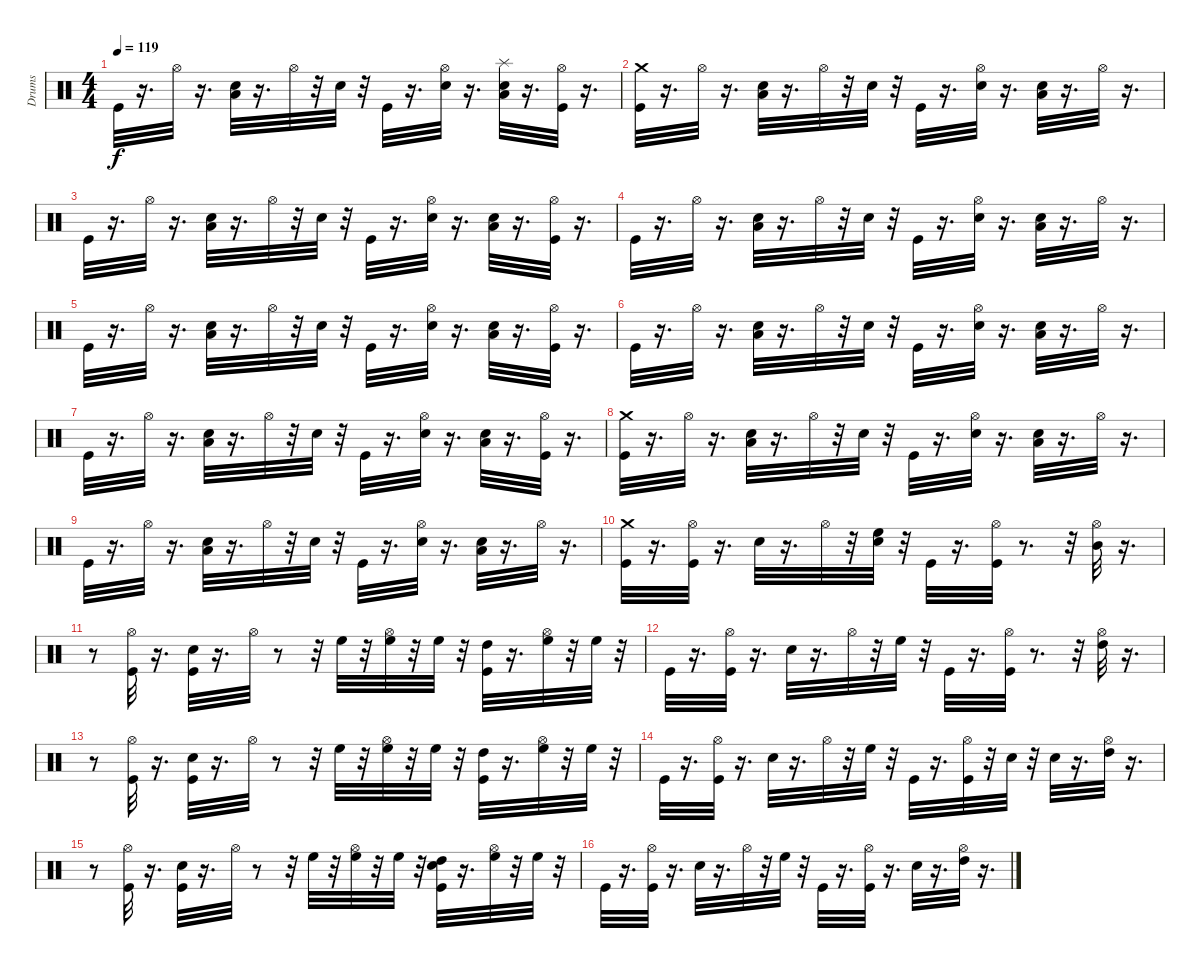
\track ("Drums" "Drums") {instrument percussion}
\staff {score}
\articulation defaults
\ts (4 4)
\tempo 119
\clef neutral
\ks c "Kick (hit)".32{dy f}
r.16{d} "Hi-Hat (open)".32 r.16{d} ("Low Floor Tom (hit)" "Hand Clap (hit)").32 r.16{d} "Hi-Hat (open)".32 r.32 "Hand Clap (hit)".32 r.32 "Kick (hit)".32 r.16{d} ("Hi-Hat (open)" "Hand Clap (hit)").32 r.16{d} ("Splash (hit)" "Low Floor Tom (hit)" "Hand Clap (hit)").32 r.16{d} ("Kick (hit)" "Hi-Hat (open)").32 r.16{d} |
("Crash medium (hit)" "Kick (hit)").32 r.16{d} "Hi-Hat (open)".32 r.16{d} ("Low Floor Tom (hit)" "Hand Clap (hit)").32 r.16{d} "Hi-Hat (open)".32 r.32 "Hand Clap (hit)".32 r.32 "Kick (hit)".32 r.16{d} ("Hi-Hat (open)" "Hand Clap (hit)").32 r.16{d} ("Low Floor Tom (hit)" "Hand Clap (hit)").32 r.16{d} "Hi-Hat (open)".32 r.16{d} |
"Kick (hit)".32 r.16{d} "Hi-Hat (open)".32 r.16{d} ("Low Floor Tom (hit)" "Hand Clap (hit)").32 r.16{d} "Hi-Hat (open)".32 r.32 "Hand Clap (hit)".32 r.32 "Kick (hit)".32 r.16{d} ("Hi-Hat (open)" "Hand Clap (hit)").32 r.16{d} ("Low Floor Tom (hit)" "Hand Clap (hit)").32 r.16{d} ("Kick (hit)" "Hi-Hat (open)").32 r.16{d} |
"Kick (hit)".32 r.16{d} "Hi-Hat (open)".32 r.16{d} ("Low Floor Tom (hit)" "Hand Clap (hit)").32 r.16{d} "Hi-Hat (open)".32 r.32 "Hand Clap (hit)".32 r.32 "Kick (hit)".32 r.16{d} ("Hi-Hat (open)" "Hand Clap (hit)").32 r.16{d} ("Low Floor Tom (hit)" "Hand Clap (hit)").32 r.16{d} "Hi-Hat (open)".32 r.16{d} |
"Kick (hit)".32 r.16{d} "Hi-Hat (open)".32 r.16{d} ("Low Floor Tom (hit)" "Hand Clap (hit)").32 r.16{d} "Hi-Hat (open)".32 r.32 "Hand Clap (hit)".32 r.32 "Kick (hit)".32 r.16{d} ("Hi-Hat (open)" "Hand Clap (hit)").32 r.16{d} ("Low Floor Tom (hit)" "Hand Clap (hit)").32 r.16{d} ("Kick (hit)" "Hi-Hat (open)").32 r.16{d} |
"Kick (hit)".32 r.16{d} "Hi-Hat (open)".32 r.16{d} ("Low Floor Tom (hit)" "Hand Clap (hit)").32 r.16{d} "Hi-Hat (open)".32 r.32 "Hand Clap (hit)".32 r.32 "Kick (hit)".32 r.16{d} ("Hi-Hat (open)" "Hand Clap (hit)").32 r.16{d} ("Low Floor Tom (hit)" "Hand Clap (hit)").32 r.16{d} "Hi-Hat (open)".32 r.16{d} |
"Kick (hit)".32 r.16{d} "Hi-Hat (open)".32 r.16{d} ("Low Floor Tom (hit)" "Hand Clap (hit)").32 r.16{d} "Hi-Hat (open)".32 r.32 "Hand Clap (hit)".32 r.32 "Kick (hit)".32 r.16{d} ("Hi-Hat (open)" "Hand Clap (hit)").32 r.16{d} ("Low Floor Tom (hit)" "Hand Clap (hit)").32 r.16{d} ("Kick (hit)" "Hi-Hat (open)").32 r.16{d} |
("Crash medium (hit)" "Kick (hit)").32 r.16{d} "Hi-Hat (open)".32 r.16{d} ("Low Floor Tom (hit)" "Hand Clap (hit)").32 r.16{d} "Hi-Hat (open)".32 r.32 "Hand Clap (hit)".32 r.32 "Kick (hit)".32 r.16{d} ("Hi-Hat (open)" "Hand Clap (hit)").32 r.16{d} ("Low Floor Tom (hit)" "Hand Clap (hit)").32 r.16{d} "Hi-Hat (open)".32 r.16{d} |
"Kick (hit)".32 r.16{d} "Hi-Hat (open)".32 r.16{d} ("Low Floor Tom (hit)" "Hand Clap (hit)").32 r.16{d} "Hi-Hat (open)".32 r.32 "Hand Clap (hit)".32 r.32 "Kick (hit)".32 r.16{d} ("Hi-Hat (open)" "Hand Clap (hit)").32 r.16{d} ("Low Floor Tom (hit)" "Hand Clap (hit)").32 r.16{d} "Hi-Hat (open)".32 r.16{d} |
("Crash medium (hit)" "Kick (hit)").32 r.16{d} ("Kick (hit)" "Hi-Hat (open)").32 r.16{d} "Hand Clap (hit)".32 r.16{d} "Hi-Hat (open)".32 r.32 ("High Floor Tom (hit)" "Electric Snare (hit)").32 r.32 "Kick (hit)".32 r.16{d} ("Kick (hit)" "Hi-Hat (open)").32 r.8{d} r.32 ("Mid Tom (hit)" "Hi-Hat (open)").32 r.16{d} |
r.8 ("Kick (hit)" "Hi-Hat (open)").32 r.16{d} ("Hand Clap (hit)" "Kick (hit)").32 r.16{d} "Hi-Hat (open)".32 r.8 r.32 "High Floor Tom (hit)".32 r.32 ("High Floor Tom (hit)" "Hi-Hat (open)").32 r.32 "High Floor Tom (hit)".32 r.32 ("High Tom (hit)" "Kick (hit)").32 r.16{d} ("High Floor Tom (hit)" "Hi-Hat (open)").32 r.32 "High Floor Tom (hit)".32 r.32 |
"Kick (hit)".32 r.16{d} ("Kick (hit)" "Hi-Hat (open)").32 r.16{d} "Hand Clap (hit)".32 r.16{d} "Hi-Hat (open)".32 r.32 "High Floor Tom (hit)".32 r.32 "Kick (hit)".32 r.16{d} ("Kick (hit)" "Hi-Hat (open)").32 r.8{d} r.32 ("High Tom (hit)" "Hi-Hat (open)").32 r.16{d} |
r.8 ("Kick (hit)" "Hi-Hat (open)").32 r.16{d} ("Hand Clap (hit)" "Kick (hit)").32 r.16{d} "Hi-Hat (open)".32 r.8 r.32 "High Floor Tom (hit)".32 r.32 ("High Floor Tom (hit)" "Hi-Hat (open)").32 r.32 "High Floor Tom (hit)".32 r.32 ("High Tom (hit)" "Kick (hit)").32 r.16{d} ("High Floor Tom (hit)" "Hi-Hat (open)").32 r.32 "High Floor Tom (hit)".32 r.32 |
"Kick (hit)".32 r.16{d} ("Kick (hit)" "Hi-Hat (open)").32 r.16{d} "Hand Clap (hit)".32 r.16{d} "Hi-Hat (open)".32 r.32 "High Floor Tom (hit)".32 r.32 "Kick (hit)".32 r.16{d} ("Kick (hit)" "Hi-Hat (open)").32 r.32 "Electric Snare (hit)".32 r.32 "Hand Clap (hit)".32 r.16{d} ("High Tom (hit)" "Hi-Hat (open)").32 r.16{d} |
r.8 ("Kick (hit)" "Hi-Hat (open)").32 r.16{d} ("Hand Clap (hit)" "Kick (hit)").32 r.16{d} "Hi-Hat (open)".32 r.8 r.32 "High Floor Tom (hit)".32 r.32 ("High Floor Tom (hit)" "Hi-Hat (open)").32 r.32 "High Floor Tom (hit)".32 r.32 ("High Tom (hit)" "Hand Clap (hit)" "Kick (hit)").32 r.16{d} ("High Floor Tom (hit)" "Hi-Hat (open)").32 r.32 "High Floor Tom (hit)".32 r.32 |
"Kick (hit)".32 r.16{d} ("Kick (hit)" "Hi-Hat (open)").32 r.16{d} "Hand Clap (hit)".32 r.16{d} "Hi-Hat (open)".32 r.32 "High Floor Tom (hit)".32 r.32 "Kick (hit)".32 r.16{d} ("Kick (hit)" "Hi-Hat (open)").32 r.16{d} "Hand Clap (hit)".32 r.16{d} ("High Tom (hit)" "Hi-Hat (open)").32 r.16{d}
